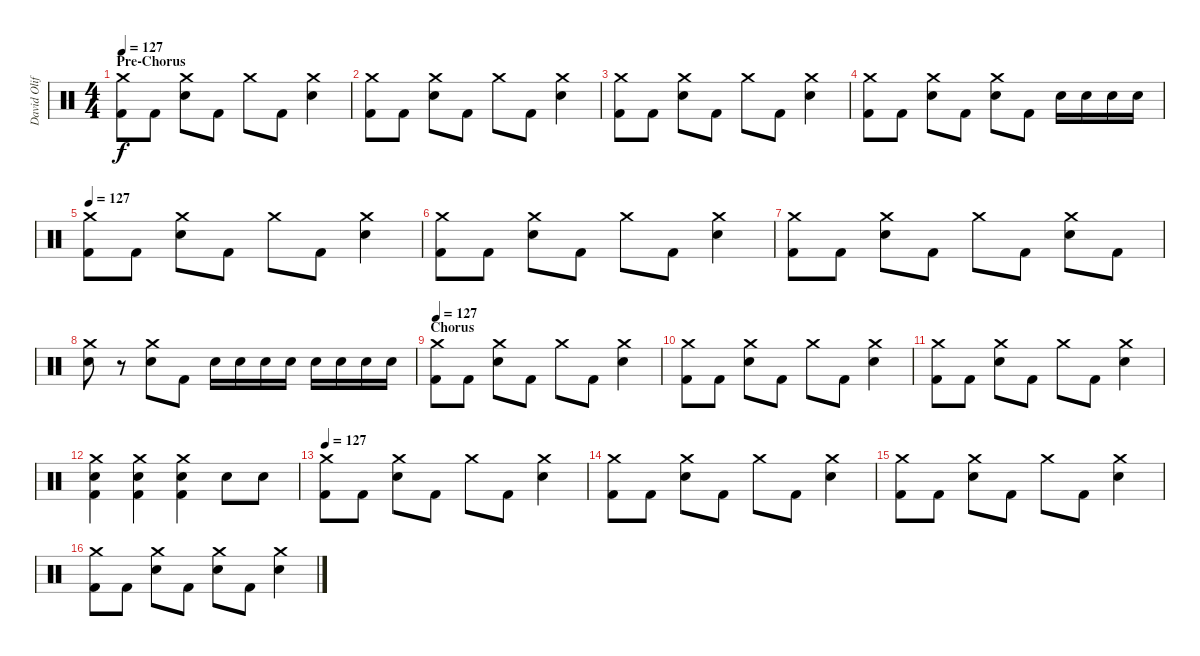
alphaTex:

\track ("David Oliffe" "David Olif") {instrument percussion}
\staff {score}
\articulation defaults
\ts (4 4)
\section ("" "Pre-Chorus")
\tempo 127
\clef neutral
\ks c
("Crash medium (hit)" "Kick (hit) 2").8{dy f} "Kick (hit) 2".8 ("Crash medium (hit)" "Electric Snare (hit)").8 "Kick (hit) 2".8 "Crash medium (hit)".8 "Kick (hit) 2".8 ("Crash medium (hit)" "Electric Snare (hit)").4 |
("Crash medium (hit)" "Kick (hit) 2").8 "Kick (hit) 2".8 ("Crash medium (hit)" "Electric Snare (hit)").8 "Kick (hit) 2".8 "Crash medium (hit)".8 "Kick (hit) 2".8 ("Crash medium (hit)" "Electric Snare (hit)").4 |
("Crash medium (hit)" "Kick (hit) 2").8 "Kick (hit) 2".8 ("Crash medium (hit)" "Electric Snare (hit)").8 "Kick (hit) 2".8 "Crash medium (hit)".8 "Kick (hit) 2".8 ("Crash medium (hit)" "Electric Snare (hit)").4 |
("Crash medium (hit)" "Kick (hit) 2").8 "Kick (hit) 2".8 ("Crash medium (hit)" "Electric Snare (hit)").8 "Kick (hit) 2".8 ("Crash medium (hit)" "Electric Snare (hit)").8 "Kick (hit) 2".8 "Electric Snare (hit)".16 "Electric Snare (hit)".16 "Electric Snare (hit)".16 "Electric Snare (hit)".16 |
\tempo 127
("Crash medium (hit)" "Kick (hit) 2").8 "Kick (hit) 2".8 ("Crash medium (hit)" "Electric Snare (hit)").8 "Kick (hit) 2".8 "Crash medium (hit)".8 "Kick (hit) 2".8 ("Crash medium (hit)" "Electric Snare (hit)").4 |
("Crash medium (hit)" "Kick (hit) 2").8 "Kick (hit) 2".8 ("Crash medium (hit)" "Electric Snare (hit)").8 "Kick (hit) 2".8 "Crash medium (hit)".8 "Kick (hit) 2".8 ("Crash medium (hit)" "Electric Snare (hit)").4 |
("Crash medium (hit)" "Kick (hit) 2").8 "Kick (hit) 2".8 ("Crash medium (hit)" "Electric Snare (hit)").8 "Kick (hit) 2".8 "Crash medium (hit)".8 "Kick (hit) 2".8 ("Crash medium (hit)" "Electric Snare (hit)").8 "Kick (hit) 2".8 |
("Crash medium (hit)" "Electric Snare (hit)").8 r.8 ("Crash medium (hit)" "Electric Snare (hit)").8 "Kick (hit) 2".8 "Electric Snare (hit)".16 "Electric Snare (hit)".16 "Electric Snare (hit)".16 "Electric Snare (hit)".16 "Electric Snare (hit)".16 "Electric Snare (hit)".16 "Electric Snare (hit)".16 "Electric Snare (hit)".16 |
\section ("" "Chorus ")
\tempo 127
("Crash medium (hit)" "Kick (hit) 2").8 "Kick (hit) 2".8 ("Crash medium (hit)" "Electric Snare (hit)").8 "Kick (hit) 2".8 "Crash medium (hit)".8 "Kick (hit) 2".8 ("Crash medium (hit)" "Electric Snare (hit)").4 |
("Crash medium (hit)" "Kick (hit) 2").8 "Kick (hit) 2".8 ("Crash medium (hit)" "Electric Snare (hit)").8 "Kick (hit) 2".8 "Crash medium (hit)".8 "Kick (hit) 2".8 ("Crash medium (hit)" "Electric Snare (hit)").4 |
("Crash medium (hit)" "Kick (hit) 2").8 "Kick (hit) 2".8 ("Crash medium (hit)" "Electric Snare (hit)").8 "Kick (hit) 2".8 "Crash medium (hit)".8 "Kick (hit) 2".8 ("Crash medium (hit)" "Electric Snare (hit)").4 |
("Crash medium (hit)" "Electric Snare (hit)" "Kick (hit) 2").4 ("Crash medium (hit)" "Electric Snare (hit)" "Kick (hit) 2").4 ("Crash medium (hit)" "Electric Snare (hit)" "Kick (hit) 2").4 "Electric Snare (hit)".8 "Electric Snare (hit)".8 |
\tempo 127
("Crash medium (hit)" "Kick (hit) 2").8 "Kick (hit) 2".8 ("Crash medium (hit)" "Electric Snare (hit)").8 "Kick (hit) 2".8 "Crash medium (hit)".8 "Kick (hit) 2".8 ("Crash medium (hit)" "Electric Snare (hit)").4 |
("Crash medium (hit)" "Kick (hit) 2").8 "Kick (hit) 2".8 ("Crash medium (hit)" "Electric Snare (hit)").8 "Kick (hit) 2".8 "Crash medium (hit)".8 "Kick (hit) 2".8 ("Crash medium (hit)" "Electric Snare (hit)").4 |
("Crash medium (hit)" "Kick (hit) 2").8 "Kick (hit) 2".8 ("Crash medium (hit)" "Electric Snare (hit)").8 "Kick (hit) 2".8 "Crash medium (hit)".8 "Kick (hit) 2".8 ("Crash medium (hit)" "Electric Snare (hit)").4 |
("Crash medium (hit)" "Kick (hit) 2").8 "Kick (hit) 2".8 ("Crash medium (hit)" "Electric Snare (hit)").8 "Kick (hit) 2".8 ("Crash medium (hit)" "Electric Snare (hit)").8 "Kick (hit) 2".8 ("Crash medium (hit)" "Electric Snare (hit)").4
